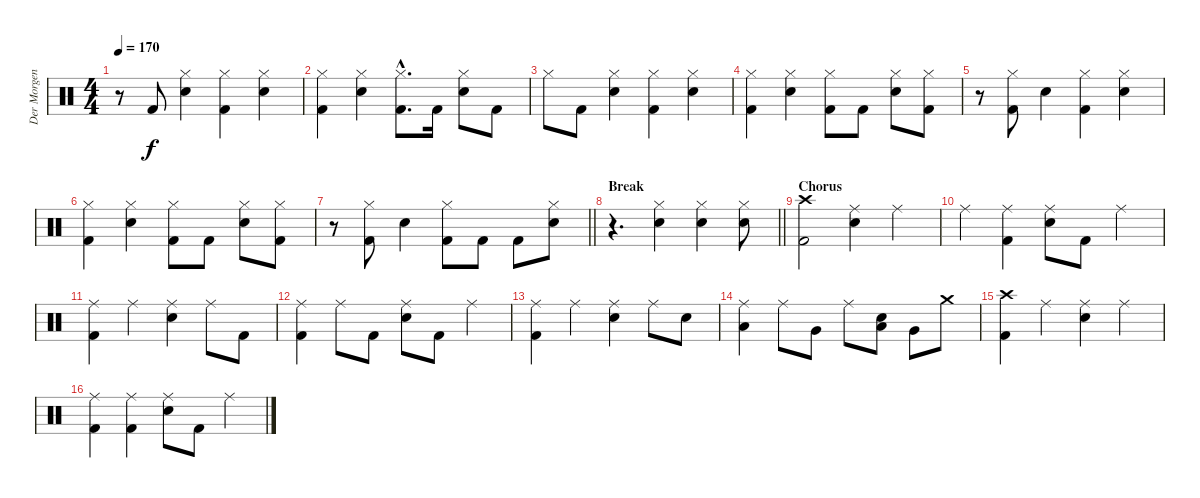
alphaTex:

\track ("Der Morgenstern" "Der Morgen") {instrument percussion}
\staff {score}
\articulation defaults
\ts (4 4)
\tempo 170
\clef neutral
\ks c
r.8{dy f} "Kick (hit) 2".8 ("Hi-Hat (closed)" "Electric Snare (hit)").4 ("Hi-Hat (closed)" "Kick (hit) 2").4 ("Hi-Hat (closed)" "Electric Snare (hit)").4 |
("Hi-Hat (closed)" "Kick (hit) 2").4 ("Hi-Hat (closed)" "Electric Snare (hit)").4 ("Hi-Hat (closed)"{hac} "Kick (hit) 2"{hac}).8{d} "Kick (hit) 2".16 ("Hi-Hat (closed)" "Electric Snare (hit)").8 "Kick (hit) 2".8 |
"Hi-Hat (closed)".8 "Kick (hit) 2".8 ("Hi-Hat (closed)" "Electric Snare (hit)").4 ("Hi-Hat (closed)" "Kick (hit) 2").4 ("Hi-Hat (closed)" "Electric Snare (hit)").4 |
("Hi-Hat (closed)" "Kick (hit) 2").4 ("Hi-Hat (closed)" "Electric Snare (hit)").4 ("Hi-Hat (closed)" "Kick (hit) 2").8 "Kick (hit) 2".8 ("Hi-Hat (closed)" "Electric Snare (hit)").8 ("Hi-Hat (closed)" "Kick (hit) 2").8 |
r.8 ("Hi-Hat (closed)" "Kick (hit) 2").8 "Electric Snare (hit)".4 ("Hi-Hat (closed)" "Kick (hit) 2").4 ("Hi-Hat (closed)" "Electric Snare (hit)").4 |
("Hi-Hat (closed)" "Kick (hit) 2").4 ("Hi-Hat (closed)" "Electric Snare (hit)").4 ("Hi-Hat (closed)" "Kick (hit) 2").8 "Kick (hit) 2".8 ("Hi-Hat (closed)" "Electric Snare (hit)").8 ("Hi-Hat (closed)" "Kick (hit) 2").8 |
\barLineRight lightlight
r.8 ("Hi-Hat (closed)" "Kick (hit) 2").8 "Electric Snare (hit)".4 ("Hi-Hat (closed)" "Kick (hit) 2").8 "Kick (hit) 2".8 "Kick (hit) 2".8 ("Hi-Hat (closed)" "Electric Snare (hit)").8 |
\section ("" "Break")
\barLineRight lightlight
r.4{d} ("Hi-Hat (closed)" "Electric Snare (hit)").4 ("Hi-Hat (closed)" "Electric Snare (hit)").4 ("Hi-Hat (closed)" "Electric Snare (hit)").8 |
\section ("" "Chorus")
("Crash high (hit)" "Kick (hit) 2").2 ("Ride (middle)" "Electric Snare (hit)").4 "Ride (middle)".4 |
"Ride (middle)".4 ("Ride (middle)" "Kick (hit) 2").4 ("Ride (middle)" "Electric Snare (hit)").8 "Kick (hit) 2".8 "Ride (middle)".4 |
("Ride (middle)" "Kick (hit) 2").4 "Ride (middle)".4 ("Ride (middle)" "Electric Snare (hit)").4 "Ride (middle)".8 "Kick (hit) 2".8 |
("Ride (middle)" "Kick (hit) 2").4 "Ride (middle)".8 "Kick (hit) 2".8 ("Ride (middle)" "Electric Snare (hit)").8 "Kick (hit) 2".8 "Ride (middle)".4 |
("Ride (middle)" "Kick (hit) 2").4 "Ride (middle)".4 ("Ride (middle)" "Electric Snare (hit)").4 "Ride (middle)".8 "Electric Snare (hit)".8 |
("Ride (middle)" "Low Tom (hit)").4 "Ride (middle)".8 "Very Low Tom (hit)".8 "Ride (middle)".8 ("Low Tom (hit)" "Electric Snare (hit)").8 "Very Low Tom (hit)".8 "Crash medium (hit)".8 |
("Crash high (hit)" "Kick (hit) 2").4 "Ride (middle)".4 ("Ride (middle)" "Electric Snare (hit)").4 "Ride (middle)".4 |
("Ride (middle)" "Kick (hit) 2").4 ("Ride (middle)" "Kick (hit) 2").4 ("Ride (middle)" "Electric Snare (hit)").8 "Kick (hit) 2".8 "Ride (middle)".4
